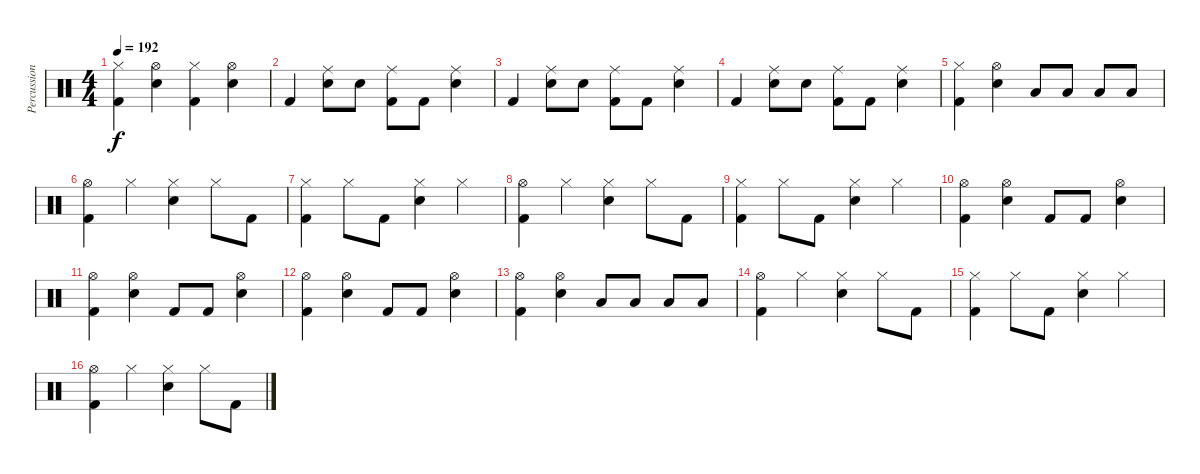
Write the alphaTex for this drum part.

\track ("Percussions" "Percussion") {instrument percussion}
\staff {score}
\articulation defaults
\ts (4 4)
\tempo 192
\clef neutral
\ks c
("Kick (hit) 2" "Hi-Hat (closed)").4{dy f} ("Electric Snare (hit)" "Hi-Hat (open)").4 ("Kick (hit) 2" "Hi-Hat (closed)").4 ("Electric Snare (hit)" "Hi-Hat (open)").4 |
"Kick (hit) 2".4 ("Electric Snare (hit)" "Ride (middle)").8 "Electric Snare (hit)".8 ("Kick (hit) 2" "Ride (middle)").8 "Kick (hit) 2".8 ("Electric Snare (hit)" "Ride (middle)").4 |
"Kick (hit) 2".4 ("Electric Snare (hit)" "Ride (middle)").8 "Electric Snare (hit)".8 ("Kick (hit) 2" "Ride (middle)").8 "Kick (hit) 2".8 ("Electric Snare (hit)" "Ride (middle)").4 |
"Kick (hit) 2".4 ("Electric Snare (hit)" "Ride (middle)").8 "Electric Snare (hit)".8 ("Kick (hit) 2" "Ride (middle)").8 "Kick (hit) 2".8 ("Electric Snare (hit)" "Ride (middle)").4 |
("Kick (hit) 2" "Hi-Hat (closed)").4 ("Electric Snare (hit)" "Hi-Hat (open)").4 "Low Tom (hit)".8 "Low Tom (hit)".8 "Low Tom (hit)".8 "Low Tom (hit)".8 |
("Kick (hit) 2" "Hi-Hat (open)").4 "Hi-Hat (closed)".4 ("Electric Snare (hit)" "Hi-Hat (closed)").4 "Hi-Hat (closed)".8 "Kick (hit) 2".8 |
("Kick (hit) 2" "Hi-Hat (closed)").4 "Hi-Hat (closed)".8 "Kick (hit) 2".8 ("Electric Snare (hit)" "Hi-Hat (closed)").4 "Hi-Hat (closed)".4 |
("Kick (hit) 2" "Hi-Hat (open)").4 "Hi-Hat (closed)".4 ("Electric Snare (hit)" "Hi-Hat (closed)").4 "Hi-Hat (closed)".8 "Kick (hit) 2".8 |
("Kick (hit) 2" "Hi-Hat (closed)").4 "Hi-Hat (closed)".8 "Kick (hit) 2".8 ("Electric Snare (hit)" "Hi-Hat (closed)").4 "Hi-Hat (closed)".4 |
("Kick (hit) 2" "Hi-Hat (open)").4 ("Electric Snare (hit)" "Hi-Hat (open)").4 "Kick (hit) 2".8 "Kick (hit) 2".8 ("Electric Snare (hit)" "Hi-Hat (open)").4 |
("Kick (hit) 2" "Hi-Hat (open)").4 ("Electric Snare (hit)" "Hi-Hat (open)").4 "Kick (hit) 2".8 "Kick (hit) 2".8 ("Electric Snare (hit)" "Hi-Hat (open)").4 |
("Kick (hit) 2" "Hi-Hat (open)").4 ("Electric Snare (hit)" "Hi-Hat (open)").4 "Kick (hit) 2".8 "Kick (hit) 2".8 ("Electric Snare (hit)" "Hi-Hat (open)").4 |
("Kick (hit) 2" "Hi-Hat (open)").4 ("Electric Snare (hit)" "Hi-Hat (open)").4 "Low Tom (hit)".8 "Low Tom (hit)".8 "Low Tom (hit)".8 "Low Tom (hit)".8 |
("Kick (hit) 2" "Hi-Hat (open)").4 "Hi-Hat (closed)".4 ("Electric Snare (hit)" "Hi-Hat (closed)").4 "Hi-Hat (closed)".8 "Kick (hit) 2".8 |
("Kick (hit) 2" "Hi-Hat (closed)").4 "Hi-Hat (closed)".8 "Kick (hit) 2".8 ("Electric Snare (hit)" "Hi-Hat (closed)").4 "Hi-Hat (closed)".4 |
("Kick (hit) 2" "Hi-Hat (open)").4 "Hi-Hat (closed)".4 ("Electric Snare (hit)" "Hi-Hat (closed)").4 "Hi-Hat (closed)".8 "Kick (hit) 2".8
